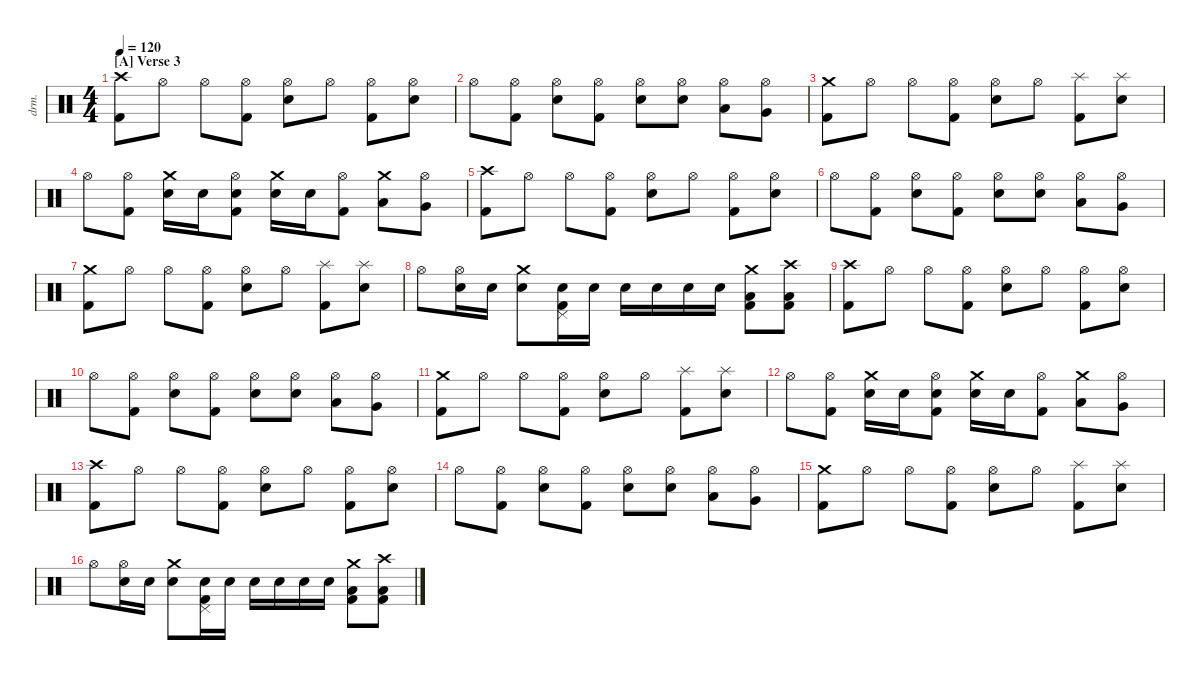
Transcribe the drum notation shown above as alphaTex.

\defaultSystemsLayout 4
\hideDynamics
\bracketExtendMode nobrackets
\track ("Drumkit" "drm.") {instrument percussion}
\staff {score}
\articulation defaults
\ts (4 4)
\section ("A" "Verse 3")
\tempo 120
\clef neutral
\ks c
("Crash high (hit)" "Kick (hit) 2").8{dy mf beam Down} "Hi-Hat (open)".8{beam Down} "Hi-Hat (open)".8{beam Down} ("Hi-Hat (open)" "Kick (hit) 2").8{beam Down} ("Hi-Hat (open)" "Snare (hit) 2").8{beam Down} "Hi-Hat (open)".8{beam Down} ("Hi-Hat (open)" "Kick (hit) 2").8{beam Down} ("Hi-Hat (open)" "Snare (hit) 2").8{beam Down} |
"Hi-Hat (open)".8{beam Down} ("Hi-Hat (open)" "Kick (hit) 2").8{beam Down} ("Hi-Hat (open)" "Snare (hit) 2").8{beam Down} ("Hi-Hat (open)" "Kick (hit) 2").8{beam Down} ("Hi-Hat (open)" "Snare (hit) 2").8{beam Down} ("Hi-Hat (open)" "Snare (hit) 2").8{beam Down} ("Hi-Hat (open)" "Low Tom (hit)").8{beam Down} ("Hi-Hat (open)" "Very Low Tom (hit)").8{beam Down} |
("Crash medium (hit)" "Kick (hit) 2").8{beam Down} "Hi-Hat (open)".8{beam Down} "Hi-Hat (open)".8{beam Down} ("Hi-Hat (open)" "Kick (hit) 2").8{beam Down} ("Hi-Hat (open)" "Snare (hit) 2").8{beam Down} "Hi-Hat (open)".8{beam Down} ("Splash (hit)" "Kick (hit) 2").8{beam Down} ("Splash (hit)" "Snare (hit) 2").8{beam Down} |
"Hi-Hat (open)".8{beam Down} ("Hi-Hat (open)" "Kick (hit) 2").8{beam Down} ("Crash medium (hit)" "Snare (hit) 2").16{beam Down} "Snare (hit) 2".16{beam Down} ("Hi-Hat (open)" "Kick (hit) 2" "Snare (hit) 2").8{beam Down} ("Crash medium (hit)" "Snare (hit) 2").16{beam Down} "Snare (hit) 2".16{beam Down} ("Hi-Hat (open)" "Kick (hit) 2").8{beam Down} ("Crash medium (hit)" "Low Tom (hit)").8{beam Down} ("Hi-Hat (open)" "Very Low Tom (hit)").8{beam Down} |
("Crash high (hit)" "Kick (hit) 2").8{beam Down} "Hi-Hat (open)".8{beam Down} "Hi-Hat (open)".8{beam Down} ("Hi-Hat (open)" "Kick (hit) 2").8{beam Down} ("Hi-Hat (open)" "Snare (hit) 2").8{beam Down} "Hi-Hat (open)".8{beam Down} ("Hi-Hat (open)" "Kick (hit) 2").8{beam Down} ("Hi-Hat (open)" "Snare (hit) 2").8{beam Down} |
"Hi-Hat (open)".8{beam Down} ("Hi-Hat (open)" "Kick (hit) 2").8{beam Down} ("Hi-Hat (open)" "Snare (hit) 2").8{beam Down} ("Hi-Hat (open)" "Kick (hit) 2").8{beam Down} ("Hi-Hat (open)" "Snare (hit) 2").8{beam Down} ("Hi-Hat (open)" "Snare (hit) 2").8{beam Down} ("Hi-Hat (open)" "Low Tom (hit)").8{beam Down} ("Hi-Hat (open)" "Very Low Tom (hit)").8{beam Down} |
("Crash medium (hit)" "Kick (hit) 2").8{beam Down} "Hi-Hat (open)".8{beam Down} "Hi-Hat (open)".8{beam Down} ("Hi-Hat (open)" "Kick (hit) 2").8{beam Down} ("Hi-Hat (open)" "Snare (hit) 2").8{beam Down} "Hi-Hat (open)".8{beam Down} ("Splash (hit)" "Kick (hit) 2").8{beam Down} ("Splash (hit)" "Snare (hit) 2").8{beam Down} |
"Hi-Hat (open)".8{beam Down} ("Hi-Hat (open)" "Snare (hit) 2").16{beam Down} "Snare (hit) 2".16{beam Down} ("Crash medium (hit)" "Snare (hit) 2").8{beam Down} ("Pedal Hi-Hat (hit)" "Kick (hit) 2" "Snare (hit) 2").16{beam Down} "Snare (hit) 2".16{beam Down} "Snare (hit) 2".16{beam Down} "Snare (hit) 2".16{beam Down} "Snare (hit) 2".16{beam Down} "Snare (hit) 2".16{beam Down} ("Crash medium (hit)" "Kick (hit) 2" "Low Tom (hit)").8{beam Down} ("Crash high (hit)" "Low Tom (hit)" "Kick (hit) 2").8{beam Down} |
("Crash high (hit)" "Kick (hit) 2").8{beam Down} "Hi-Hat (open)".8{beam Down} "Hi-Hat (open)".8{beam Down} ("Hi-Hat (open)" "Kick (hit) 2").8{beam Down} ("Hi-Hat (open)" "Snare (hit) 2").8{beam Down} "Hi-Hat (open)".8{beam Down} ("Hi-Hat (open)" "Kick (hit) 2").8{beam Down} ("Hi-Hat (open)" "Snare (hit) 2").8{beam Down} |
"Hi-Hat (open)".8{beam Down} ("Hi-Hat (open)" "Kick (hit) 2").8{beam Down} ("Hi-Hat (open)" "Snare (hit) 2").8{beam Down} ("Hi-Hat (open)" "Kick (hit) 2").8{beam Down} ("Hi-Hat (open)" "Snare (hit) 2").8{beam Down} ("Hi-Hat (open)" "Snare (hit) 2").8{beam Down} ("Hi-Hat (open)" "Low Tom (hit)").8{beam Down} ("Hi-Hat (open)" "Very Low Tom (hit)").8{beam Down} |
("Crash medium (hit)" "Kick (hit) 2").8{beam Down} "Hi-Hat (open)".8{beam Down} "Hi-Hat (open)".8{beam Down} ("Hi-Hat (open)" "Kick (hit) 2").8{beam Down} ("Hi-Hat (open)" "Snare (hit) 2").8{beam Down} "Hi-Hat (open)".8{beam Down} ("Splash (hit)" "Kick (hit) 2").8{beam Down} ("Splash (hit)" "Snare (hit) 2").8{beam Down} |
"Hi-Hat (open)".8{beam Down} ("Hi-Hat (open)" "Kick (hit) 2").8{beam Down} ("Crash medium (hit)" "Snare (hit) 2").16{beam Down} "Snare (hit) 2".16{beam Down} ("Hi-Hat (open)" "Kick (hit) 2" "Snare (hit) 2").8{beam Down} ("Crash medium (hit)" "Snare (hit) 2").16{beam Down} "Snare (hit) 2".16{beam Down} ("Hi-Hat (open)" "Kick (hit) 2").8{beam Down} ("Crash medium (hit)" "Low Tom (hit)").8{beam Down} ("Hi-Hat (open)" "Very Low Tom (hit)").8{beam Down} |
("Crash high (hit)" "Kick (hit) 2").8{beam Down} "Hi-Hat (open)".8{beam Down} "Hi-Hat (open)".8{beam Down} ("Hi-Hat (open)" "Kick (hit) 2").8{beam Down} ("Hi-Hat (open)" "Snare (hit) 2").8{beam Down} "Hi-Hat (open)".8{beam Down} ("Hi-Hat (open)" "Kick (hit) 2").8{beam Down} ("Hi-Hat (open)" "Snare (hit) 2").8{beam Down} |
"Hi-Hat (open)".8{beam Down} ("Hi-Hat (open)" "Kick (hit) 2").8{beam Down} ("Hi-Hat (open)" "Snare (hit) 2").8{beam Down} ("Hi-Hat (open)" "Kick (hit) 2").8{beam Down} ("Hi-Hat (open)" "Snare (hit) 2").8{beam Down} ("Hi-Hat (open)" "Snare (hit) 2").8{beam Down} ("Hi-Hat (open)" "Low Tom (hit)").8{beam Down} ("Hi-Hat (open)" "Very Low Tom (hit)").8{beam Down} |
("Crash medium (hit)" "Kick (hit) 2").8{beam Down} "Hi-Hat (open)".8{beam Down} "Hi-Hat (open)".8{beam Down} ("Hi-Hat (open)" "Kick (hit) 2").8{beam Down} ("Hi-Hat (open)" "Snare (hit) 2").8{beam Down} "Hi-Hat (open)".8{beam Down} ("Splash (hit)" "Kick (hit) 2").8{beam Down} ("Splash (hit)" "Snare (hit) 2").8{beam Down} |
"Hi-Hat (open)".8{beam Down} ("Hi-Hat (open)" "Snare (hit) 2").16{beam Down} "Snare (hit) 2".16{beam Down} ("Crash medium (hit)" "Snare (hit) 2").8{beam Down} ("Pedal Hi-Hat (hit)" "Kick (hit) 2" "Snare (hit) 2").16{beam Down} "Snare (hit) 2".16{beam Down} "Snare (hit) 2".16{beam Down} "Snare (hit) 2".16{beam Down} "Snare (hit) 2".16{beam Down} "Snare (hit) 2".16{beam Down} ("Crash medium (hit)" "Kick (hit) 2" "Low Tom (hit)").8{beam Down} ("Crash high (hit)" "Low Tom (hit)" "Kick (hit) 2").8{beam Down}
